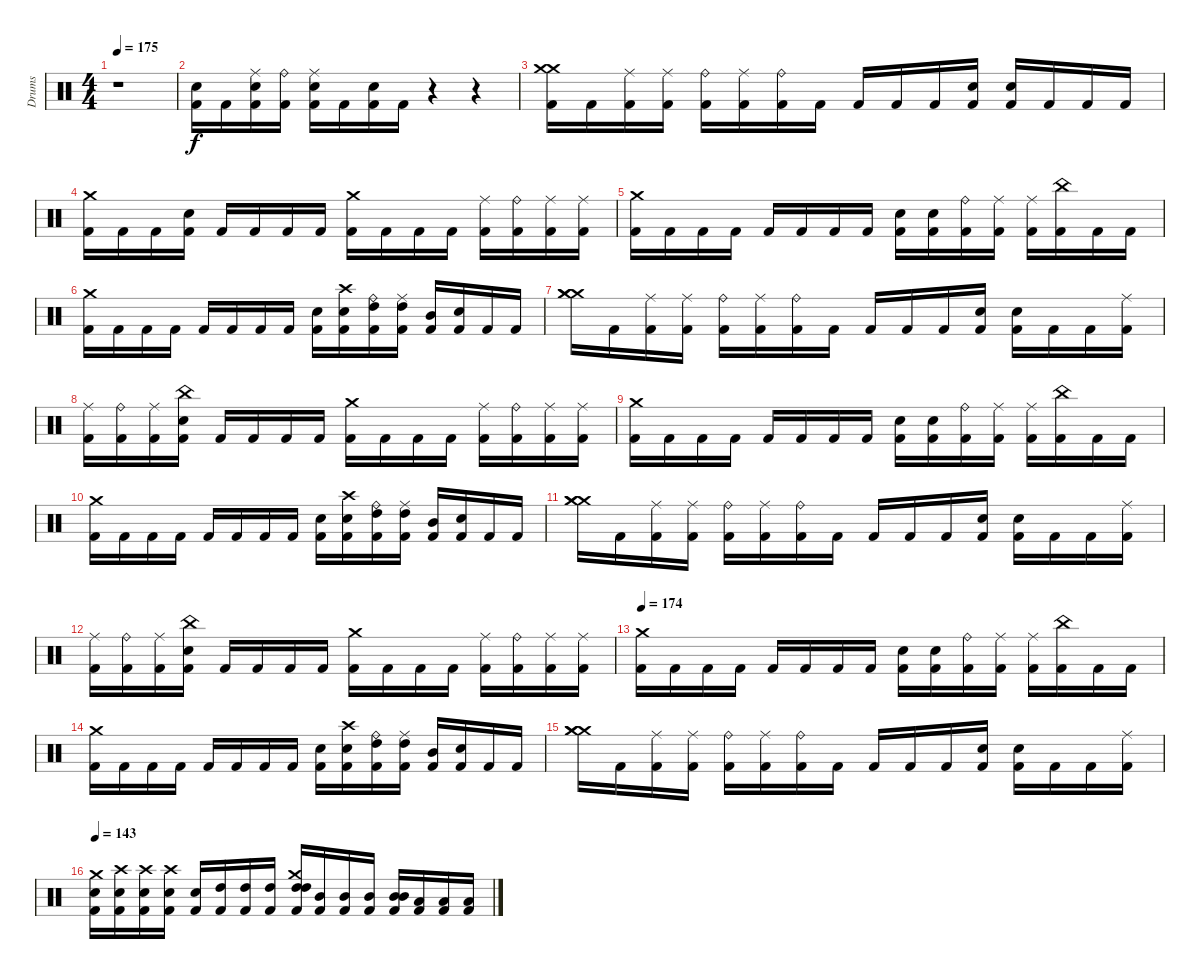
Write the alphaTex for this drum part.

\track ("Drums" "Drums") {instrument percussion}
\staff {score}
\articulation defaults
\ts (4 4)
\tempo 175
\clef neutral
\ks c
r.1{dy f} |
("Electric Snare (hit)" "Kick (hit) 2").16 "Kick (hit) 2".16 ("Ride (middle)" "Electric Snare (hit)" "Kick (hit) 2").16 ("Ride (bell)" "Kick (hit) 2").16 ("Ride (middle)" "Electric Snare (hit)" "Kick (hit) 2").16 "Kick (hit) 2".16 ("Electric Snare (hit)" "Kick (hit) 2").16 "Kick (hit) 2".16 r.4 r.4 |
("Crash medium (hit)" "Kick (hit) 2" "Crash medium (hit)").16 "Kick (hit) 2".16 ("Ride (middle)" "Kick (hit) 2").16 ("Ride (middle)" "Kick (hit) 2").16 ("Ride (bell)" "Kick (hit) 2").16 ("Ride (middle)" "Kick (hit) 2").16 ("Ride (bell)" "Kick (hit) 2").16 "Kick (hit) 2".16 "Kick (hit) 2".16 "Kick (hit) 2".16 "Kick (hit) 2".16 ("Electric Snare (hit)" "Kick (hit) 2").16 ("Electric Snare (hit)" "Kick (hit) 2").16 "Kick (hit) 2".16 "Kick (hit) 2".16 "Kick (hit) 2".16 |
("Crash medium (hit)" "Kick (hit) 2").16 "Kick (hit) 2".16 "Kick (hit) 2".16 ("Electric Snare (hit)" "Kick (hit) 2").16 "Kick (hit) 2".16 "Kick (hit) 2".16 "Kick (hit) 2".16 "Kick (hit) 2".16 ("Crash medium (hit)" "Kick (hit) 2").16 "Kick (hit) 2".16 "Kick (hit) 2".16 "Kick (hit) 2".16 ("Ride (middle)" "Kick (hit) 2").16 ("Ride (bell)" "Kick (hit) 2").16 ("Ride (middle)" "Kick (hit) 2").16 ("Ride (middle)" "Kick (hit) 2").16 |
("Crash medium (hit)" "Kick (hit) 2").16 "Kick (hit) 2".16 "Kick (hit) 2".16 "Kick (hit) 2".16 "Kick (hit) 2".16 "Kick (hit) 2".16 "Kick (hit) 2".16 "Kick (hit) 2".16 ("Electric Snare (hit)" "Kick (hit) 2").16 ("Electric Snare (hit)" "Kick (hit) 2").16 ("Ride (bell)" "Kick (hit) 2").16 ("Ride (middle)" "Kick (hit) 2").16 ("Ride (middle)" "Kick (hit) 2").16 ("China (hit)" "Kick (hit) 2").16 "Kick (hit) 2".16 "Kick (hit) 2".16 |
("Crash medium (hit)" "Kick (hit) 2").16 "Kick (hit) 2".16 "Kick (hit) 2".16 "Kick (hit) 2".16 "Kick (hit) 2".16 "Kick (hit) 2".16 "Kick (hit) 2".16 "Kick (hit) 2".16 ("Electric Snare (hit)" "Kick (hit) 2").16 ("Crash high (hit)" "Electric Snare (hit)" "Kick (hit) 2").16 ("Ride (bell)" "High Tom (hit)" "Kick (hit) 2").16 ("Ride (middle)" "High Tom (hit)" "Kick (hit) 2").16 ("Mid Tom (hit)" "Kick (hit) 2").16 ("Electric Snare (hit)" "Kick (hit) 2").16 "Kick (hit) 2".16 "Kick (hit) 2".16 |
("Crash medium (hit)" "Crash medium (hit)" "Crash medium (hit)").16 "Kick (hit) 2".16 ("Ride (middle)" "Kick (hit) 2").16 ("Ride (middle)" "Kick (hit) 2").16 ("Ride (bell)" "Kick (hit) 2").16 ("Ride (middle)" "Kick (hit) 2").16 ("Ride (bell)" "Kick (hit) 2").16 "Kick (hit) 2".16 "Kick (hit) 2".16 "Kick (hit) 2".16 "Kick (hit) 2".16 ("Electric Snare (hit)" "Kick (hit) 2").16 ("Electric Snare (hit)" "Kick (hit) 2").16 "Kick (hit) 2".16 "Kick (hit) 2".16 ("Ride (middle)" "Kick (hit) 2").16 |
("Ride (middle)" "Kick (hit) 2").16 ("Ride (bell)" "Kick (hit) 2").16 ("Ride (middle)" "Kick (hit) 2").16 ("China (hit)" "Electric Snare (hit)" "Kick (hit) 2").16 "Kick (hit) 2".16 "Kick (hit) 2".16 "Kick (hit) 2".16 "Kick (hit) 2".16 ("Crash medium (hit)" "Kick (hit) 2").16 "Kick (hit) 2".16 "Kick (hit) 2".16 "Kick (hit) 2".16 ("Ride (middle)" "Kick (hit) 2").16 ("Ride (bell)" "Kick (hit) 2").16 ("Ride (middle)" "Kick (hit) 2").16 ("Ride (middle)" "Kick (hit) 2").16 |
("Crash medium (hit)" "Kick (hit) 2").16 "Kick (hit) 2".16 "Kick (hit) 2".16 "Kick (hit) 2".16 "Kick (hit) 2".16 "Kick (hit) 2".16 "Kick (hit) 2".16 "Kick (hit) 2".16 ("Electric Snare (hit)" "Kick (hit) 2").16 ("Electric Snare (hit)" "Kick (hit) 2").16 ("Ride (bell)" "Kick (hit) 2").16 ("Ride (middle)" "Kick (hit) 2").16 ("Ride (middle)" "Kick (hit) 2").16 ("China (hit)" "Kick (hit) 2").16 "Kick (hit) 2".16 "Kick (hit) 2".16 |
("Crash medium (hit)" "Kick (hit) 2").16 "Kick (hit) 2".16 "Kick (hit) 2".16 "Kick (hit) 2".16 "Kick (hit) 2".16 "Kick (hit) 2".16 "Kick (hit) 2".16 "Kick (hit) 2".16 ("Electric Snare (hit)" "Kick (hit) 2").16 ("Crash high (hit)" "Electric Snare (hit)" "Kick (hit) 2").16 ("Ride (bell)" "High Tom (hit)" "Kick (hit) 2").16 ("Ride (middle)" "High Tom (hit)" "Kick (hit) 2").16 ("Mid Tom (hit)" "Kick (hit) 2").16 ("Electric Snare (hit)" "Kick (hit) 2").16 "Kick (hit) 2".16 "Kick (hit) 2".16 |
("Crash medium (hit)" "Crash medium (hit)" "Crash medium (hit)").16 "Kick (hit) 2".16 ("Ride (middle)" "Kick (hit) 2").16 ("Ride (middle)" "Kick (hit) 2").16 ("Ride (bell)" "Kick (hit) 2").16 ("Ride (middle)" "Kick (hit) 2").16 ("Ride (bell)" "Kick (hit) 2").16 "Kick (hit) 2".16 "Kick (hit) 2".16 "Kick (hit) 2".16 "Kick (hit) 2".16 ("Electric Snare (hit)" "Kick (hit) 2").16 ("Electric Snare (hit)" "Kick (hit) 2").16 "Kick (hit) 2".16 "Kick (hit) 2".16 ("Ride (middle)" "Kick (hit) 2").16 |
("Ride (middle)" "Kick (hit) 2").16 ("Ride (bell)" "Kick (hit) 2").16 ("Ride (middle)" "Kick (hit) 2").16 ("China (hit)" "Electric Snare (hit)" "Kick (hit) 2").16 "Kick (hit) 2".16 "Kick (hit) 2".16 "Kick (hit) 2".16 "Kick (hit) 2".16 ("Crash medium (hit)" "Kick (hit) 2").16 "Kick (hit) 2".16 "Kick (hit) 2".16 "Kick (hit) 2".16 ("Ride (middle)" "Kick (hit) 2").16 ("Ride (bell)" "Kick (hit) 2").16 ("Ride (middle)" "Kick (hit) 2").16 ("Ride (middle)" "Kick (hit) 2").16 |
\tempo 174
("Crash medium (hit)" "Kick (hit) 2").16 "Kick (hit) 2".16 "Kick (hit) 2".16 "Kick (hit) 2".16 "Kick (hit) 2".16 "Kick (hit) 2".16 "Kick (hit) 2".16 "Kick (hit) 2".16 ("Electric Snare (hit)" "Kick (hit) 2").16 ("Electric Snare (hit)" "Kick (hit) 2").16 ("Ride (bell)" "Kick (hit) 2").16 ("Ride (middle)" "Kick (hit) 2").16 ("Ride (middle)" "Kick (hit) 2").16 ("China (hit)" "Kick (hit) 2").16 "Kick (hit) 2".16 "Kick (hit) 2".16 |
("Crash medium (hit)" "Kick (hit) 2").16 "Kick (hit) 2".16 "Kick (hit) 2".16 "Kick (hit) 2".16 "Kick (hit) 2".16 "Kick (hit) 2".16 "Kick (hit) 2".16 "Kick (hit) 2".16 ("Electric Snare (hit)" "Kick (hit) 2").16 ("Crash high (hit)" "Electric Snare (hit)" "Kick (hit) 2").16 ("Ride (bell)" "High Tom (hit)" "Kick (hit) 2").16 ("Ride (middle)" "High Tom (hit)" "Kick (hit) 2").16 ("Mid Tom (hit)" "Kick (hit) 2").16 ("Electric Snare (hit)" "Kick (hit) 2").16 "Kick (hit) 2".16 "Kick (hit) 2".16 |
("Crash medium (hit)" "Crash medium (hit)" "Crash medium (hit)").16 "Kick (hit) 2".16 ("Ride (middle)" "Kick (hit) 2").16 ("Ride (middle)" "Kick (hit) 2").16 ("Ride (bell)" "Kick (hit) 2").16 ("Ride (middle)" "Kick (hit) 2").16 ("Ride (bell)" "Kick (hit) 2").16 "Kick (hit) 2".16 "Kick (hit) 2".16 "Kick (hit) 2".16 "Kick (hit) 2".16 ("Electric Snare (hit)" "Kick (hit) 2").16 ("Electric Snare (hit)" "Kick (hit) 2").16 "Kick (hit) 2".16 "Kick (hit) 2".16 ("Ride (middle)" "Kick (hit) 2").16 |
\tempo 143
("Crash medium (hit)" "Electric Snare (hit)" "Kick (hit) 2").16 ("Electric Snare (hit)" "Crash high (hit)" "Kick (hit) 2").16 ("Electric Snare (hit)" "Crash high (hit)" "Kick (hit) 2").16 ("Crash high (hit)" "Electric Snare (hit)" "Kick (hit) 2").16 ("Electric Snare (hit)" "Kick (hit) 2").16 ("High Tom (hit)" "Kick (hit) 2").16 ("High Tom (hit)" "Kick (hit) 2").16 ("High Tom (hit)" "Kick (hit) 2").16 ("Crash medium (hit)" "High Tom (hit)" "High Tom (hit)" "Kick (hit) 2").16 ("Mid Tom (hit)" "Kick (hit) 2").16 ("Mid Tom (hit)" "Kick (hit) 2").16 ("Mid Tom (hit)" "Kick (hit) 2").16 ("Mid Tom (hit)" "Mid Tom (hit)" "Kick (hit) 2").16 ("Low Tom (hit)" "Kick (hit) 2").16 ("Low Tom (hit)" "Kick (hit) 2").16 ("Low Tom (hit)" "Kick (hit) 2").16
